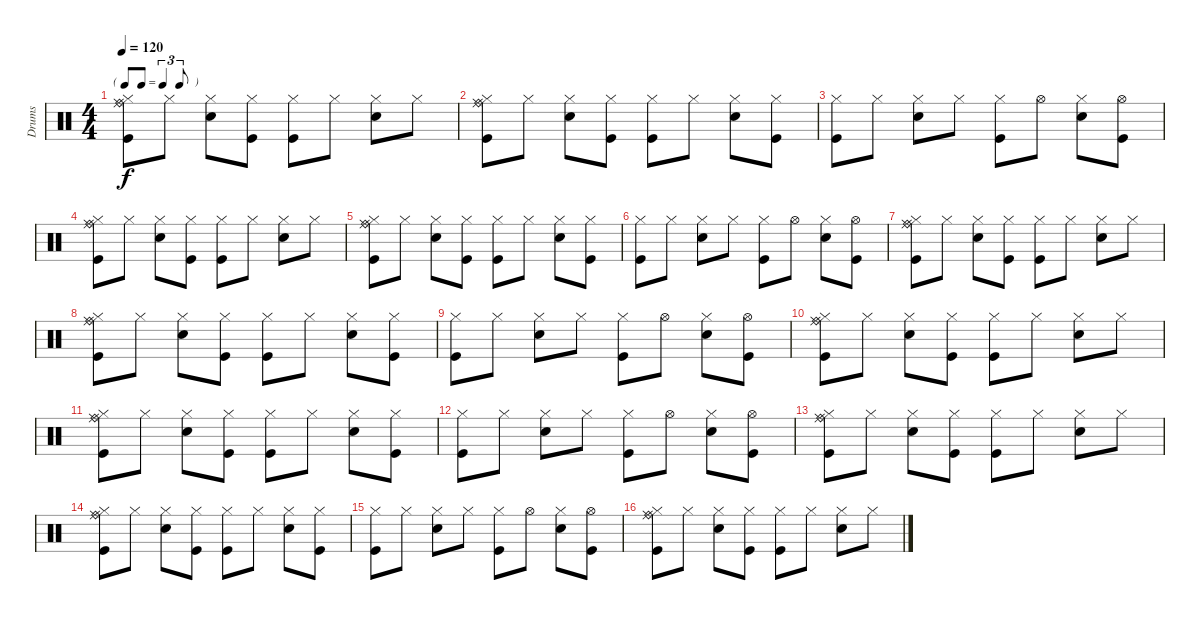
\track ("Drums" "Drums") {instrument percussion}
\staff {score}
\articulation defaults
\ts (4 4)
\tf triplet8th
\tempo 120
\clef neutral
\ks c
("Kick (hit)" "Hi-Hat (closed)" "Ride (middle)" "Ride (bell)").8{dy f} "Hi-Hat (closed)".8 ("Snare (hit) 2" "Hi-Hat (closed)").8 ("Kick (hit)" "Hi-Hat (closed)").8 ("Kick (hit)" "Hi-Hat (closed)").8 "Hi-Hat (closed)".8 ("Snare (hit) 2" "Hi-Hat (closed)").8 "Hi-Hat (closed)".8 |
("Kick (hit)" "Hi-Hat (closed)" "Ride (middle)" "Ride (bell)").8 "Hi-Hat (closed)".8 ("Snare (hit) 2" "Hi-Hat (closed)").8 ("Kick (hit)" "Hi-Hat (closed)").8 ("Kick (hit)" "Hi-Hat (closed)").8 "Hi-Hat (closed)".8 ("Snare (hit) 2" "Hi-Hat (closed)").8 ("Kick (hit)" "Hi-Hat (closed)").8 |
("Kick (hit)" "Hi-Hat (closed)").8 "Hi-Hat (closed)".8 ("Snare (hit) 2" "Hi-Hat (closed)").8 "Hi-Hat (closed)".8 ("Kick (hit)" "Hi-Hat (closed)").8 "Hi-Hat (open)".8 ("Snare (hit) 2" "Hi-Hat (closed)").8 ("Kick (hit)" "Hi-Hat (open)").8 |
("Kick (hit)" "Hi-Hat (closed)" "Ride (middle)" "Ride (bell)").8 "Hi-Hat (closed)".8 ("Snare (hit) 2" "Hi-Hat (closed)").8 ("Kick (hit)" "Hi-Hat (closed)").8 ("Kick (hit)" "Hi-Hat (closed)").8 "Hi-Hat (closed)".8 ("Snare (hit) 2" "Hi-Hat (closed)").8 "Hi-Hat (closed)".8 |
("Kick (hit)" "Hi-Hat (closed)" "Ride (middle)" "Ride (bell)").8 "Hi-Hat (closed)".8 ("Snare (hit) 2" "Hi-Hat (closed)").8 ("Kick (hit)" "Hi-Hat (closed)").8 ("Kick (hit)" "Hi-Hat (closed)").8 "Hi-Hat (closed)".8 ("Snare (hit) 2" "Hi-Hat (closed)").8 ("Kick (hit)" "Hi-Hat (closed)").8 |
("Kick (hit)" "Hi-Hat (closed)").8 "Hi-Hat (closed)".8 ("Snare (hit) 2" "Hi-Hat (closed)").8 "Hi-Hat (closed)".8 ("Kick (hit)" "Hi-Hat (closed)").8 "Hi-Hat (open)".8 ("Snare (hit) 2" "Hi-Hat (closed)").8 ("Kick (hit)" "Hi-Hat (open)").8 |
("Kick (hit)" "Hi-Hat (closed)" "Ride (middle)" "Ride (bell)").8 "Hi-Hat (closed)".8 ("Snare (hit) 2" "Hi-Hat (closed)").8 ("Kick (hit)" "Hi-Hat (closed)").8 ("Kick (hit)" "Hi-Hat (closed)").8 "Hi-Hat (closed)".8 ("Snare (hit) 2" "Hi-Hat (closed)").8 "Hi-Hat (closed)".8 |
("Kick (hit)" "Hi-Hat (closed)" "Ride (middle)" "Ride (bell)").8 "Hi-Hat (closed)".8 ("Snare (hit) 2" "Hi-Hat (closed)").8 ("Kick (hit)" "Hi-Hat (closed)").8 ("Kick (hit)" "Hi-Hat (closed)").8 "Hi-Hat (closed)".8 ("Snare (hit) 2" "Hi-Hat (closed)").8 ("Kick (hit)" "Hi-Hat (closed)").8 |
("Kick (hit)" "Hi-Hat (closed)").8 "Hi-Hat (closed)".8 ("Snare (hit) 2" "Hi-Hat (closed)").8 "Hi-Hat (closed)".8 ("Kick (hit)" "Hi-Hat (closed)").8 "Hi-Hat (open)".8 ("Snare (hit) 2" "Hi-Hat (closed)").8 ("Kick (hit)" "Hi-Hat (open)").8 |
("Kick (hit)" "Hi-Hat (closed)" "Ride (middle)" "Ride (bell)").8 "Hi-Hat (closed)".8 ("Snare (hit) 2" "Hi-Hat (closed)").8 ("Kick (hit)" "Hi-Hat (closed)").8 ("Kick (hit)" "Hi-Hat (closed)").8 "Hi-Hat (closed)".8 ("Snare (hit) 2" "Hi-Hat (closed)").8 "Hi-Hat (closed)".8 |
("Kick (hit)" "Hi-Hat (closed)" "Ride (middle)" "Ride (bell)").8 "Hi-Hat (closed)".8 ("Snare (hit) 2" "Hi-Hat (closed)").8 ("Kick (hit)" "Hi-Hat (closed)").8 ("Kick (hit)" "Hi-Hat (closed)").8 "Hi-Hat (closed)".8 ("Snare (hit) 2" "Hi-Hat (closed)").8 ("Kick (hit)" "Hi-Hat (closed)").8 |
("Kick (hit)" "Hi-Hat (closed)").8 "Hi-Hat (closed)".8 ("Snare (hit) 2" "Hi-Hat (closed)").8 "Hi-Hat (closed)".8 ("Kick (hit)" "Hi-Hat (closed)").8 "Hi-Hat (open)".8 ("Snare (hit) 2" "Hi-Hat (closed)").8 ("Kick (hit)" "Hi-Hat (open)").8 |
("Kick (hit)" "Hi-Hat (closed)" "Ride (middle)" "Ride (bell)").8 "Hi-Hat (closed)".8 ("Snare (hit) 2" "Hi-Hat (closed)").8 ("Kick (hit)" "Hi-Hat (closed)").8 ("Kick (hit)" "Hi-Hat (closed)").8 "Hi-Hat (closed)".8 ("Snare (hit) 2" "Hi-Hat (closed)").8 "Hi-Hat (closed)".8 |
("Kick (hit)" "Hi-Hat (closed)" "Ride (middle)" "Ride (bell)").8 "Hi-Hat (closed)".8 ("Snare (hit) 2" "Hi-Hat (closed)").8 ("Kick (hit)" "Hi-Hat (closed)").8 ("Kick (hit)" "Hi-Hat (closed)").8 "Hi-Hat (closed)".8 ("Snare (hit) 2" "Hi-Hat (closed)").8 ("Kick (hit)" "Hi-Hat (closed)").8 |
("Kick (hit)" "Hi-Hat (closed)").8 "Hi-Hat (closed)".8 ("Snare (hit) 2" "Hi-Hat (closed)").8 "Hi-Hat (closed)".8 ("Kick (hit)" "Hi-Hat (closed)").8 "Hi-Hat (open)".8 ("Snare (hit) 2" "Hi-Hat (closed)").8 ("Kick (hit)" "Hi-Hat (open)").8 |
("Kick (hit)" "Hi-Hat (closed)" "Ride (middle)" "Ride (bell)").8 "Hi-Hat (closed)".8 ("Snare (hit) 2" "Hi-Hat (closed)").8 ("Kick (hit)" "Hi-Hat (closed)").8 ("Kick (hit)" "Hi-Hat (closed)").8 "Hi-Hat (closed)".8 ("Snare (hit) 2" "Hi-Hat (closed)").8 "Hi-Hat (closed)".8
